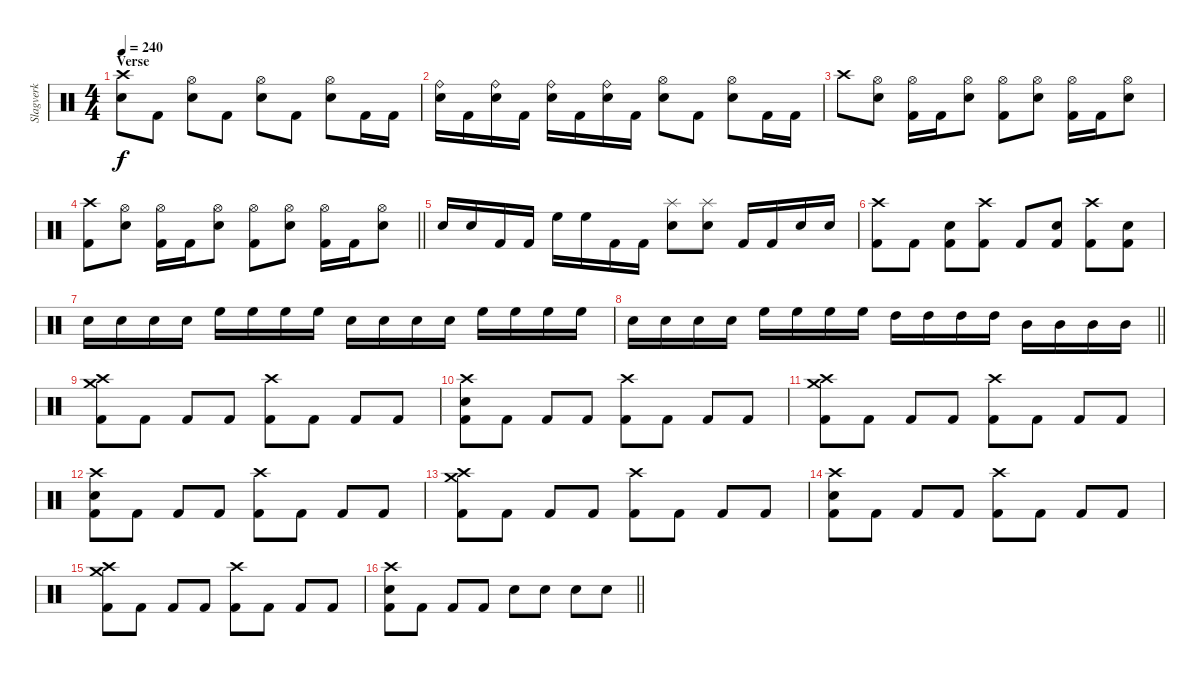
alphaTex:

\track ("Slagverk" "Slagverk") {instrument percussion}
\staff {score}
\articulation defaults
\ts (4 4)
\section ("" "Verse")
\tempo 240
\clef neutral
\ks c
("Crash high (hit)" "Electric Snare (hit)").8{dy f} "Kick (hit) 2".8 ("Hi-Hat (open)" "Electric Snare (hit)").8 "Kick (hit) 2".8 ("Hi-Hat (open)" "Electric Snare (hit)").8 "Kick (hit) 2".8 ("Hi-Hat (open)" "Electric Snare (hit)").8 "Kick (hit) 2".16 "Kick (hit) 2".16 |
("Ride (bell)" "Electric Snare (hit)").16 "Kick (hit) 2".16 ("Ride (bell)" "Electric Snare (hit)").16 "Kick (hit) 2".16 ("Ride (bell)" "Electric Snare (hit)").16 "Kick (hit) 2".16 ("Ride (bell)" "Electric Snare (hit)").16 "Kick (hit) 2".16 ("Hi-Hat (open)" "Electric Snare (hit)").8 "Kick (hit) 2".8 ("Hi-Hat (open)" "Electric Snare (hit)").8 "Kick (hit) 2".16 "Kick (hit) 2".16 |
"Crash high (hit)".8 ("Hi-Hat (open)" "Electric Snare (hit)").8 ("Hi-Hat (open)" "Kick (hit) 2").16 "Kick (hit) 2".16 ("Hi-Hat (open)" "Electric Snare (hit)").8 ("Hi-Hat (open)" "Kick (hit) 2").8 ("Hi-Hat (open)" "Electric Snare (hit)").8 ("Hi-Hat (open)" "Kick (hit) 2").16 "Kick (hit) 2".16 ("Hi-Hat (open)" "Electric Snare (hit)").8 |
\barLineRight lightlight
("Crash high (hit)" "Kick (hit) 2").8 ("Hi-Hat (open)" "Electric Snare (hit)").8 ("Hi-Hat (open)" "Kick (hit) 2").16 "Kick (hit) 2".16 ("Hi-Hat (open)" "Electric Snare (hit)").8 ("Hi-Hat (open)" "Kick (hit) 2").8 ("Hi-Hat (open)" "Electric Snare (hit)").8 ("Hi-Hat (open)" "Kick (hit) 2").16 "Kick (hit) 2".16 ("Hi-Hat (open)" "Electric Snare (hit)").8 |
"Electric Snare (hit)".16 "Electric Snare (hit)".16 "Kick (hit) 2".16 "Kick (hit) 2".16 "High Floor Tom (hit)".16 "High Floor Tom (hit)".16 "Kick (hit) 2".16 "Kick (hit) 2".16 ("Splash (hit)" "Electric Snare (hit)").8 ("Splash (hit)" "Electric Snare (hit)").8 "Kick (hit) 2".16 "Kick (hit) 2".16 "Electric Snare (hit)".16 "Electric Snare (hit)".16 |
("Crash high (hit)" "Kick (hit) 2").8 "Kick (hit) 2".8 ("Electric Snare (hit)" "Kick (hit) 2").8 ("Crash high (hit)" "Kick (hit) 2").8 "Kick (hit) 2".8 ("Electric Snare (hit)" "Kick (hit) 2").8 ("Crash high (hit)" "Kick (hit) 2").8 ("Electric Snare (hit)" "Kick (hit) 2").8 |
"Electric Snare (hit)".16 "Electric Snare (hit)".16 "Electric Snare (hit)".16 "Electric Snare (hit)".16 "High Floor Tom (hit)".16 "High Floor Tom (hit)".16 "High Floor Tom (hit)".16 "High Floor Tom (hit)".16 "Electric Snare (hit)".16 "Electric Snare (hit)".16 "Electric Snare (hit)".16 "Electric Snare (hit)".16 "High Floor Tom (hit)".16 "High Floor Tom (hit)".16 "High Floor Tom (hit)".16 "High Floor Tom (hit)".16 |
\barLineRight lightlight "Electric Snare (hit)".16 "Electric Snare (hit)".16 "Electric Snare (hit)".16 "Electric Snare (hit)".16 "High Floor Tom (hit)".16 "High Floor Tom (hit)".16 "High Floor Tom (hit)".16 "High Floor Tom (hit)".16 "High Tom (hit)".16 "High Tom (hit)".16 "High Tom (hit)".16 "High Tom (hit)".16 "Mid Tom (hit)".16 "Mid Tom (hit)".16 "Mid Tom (hit)".16 "Mid Tom (hit)".16
|
("Crash medium (hit)" "Crash high (hit)" "Kick (hit) 2").8 "Kick (hit) 2".8 "Kick (hit) 2".8 "Kick (hit) 2".8 ("Crash high (hit)" "Kick (hit) 2").8 "Kick (hit) 2".8 "Kick (hit) 2".8 "Kick (hit) 2".8 |
("Crash high (hit)" "Electric Snare (hit)" "Kick (hit) 2").8 "Kick (hit) 2".8 "Kick (hit) 2".8 "Kick (hit) 2".8 ("Crash high (hit)" "Kick (hit) 2").8 "Kick (hit) 2".8 "Kick (hit) 2".8 "Kick (hit) 2".8 |
("Crash medium (hit)" "Crash high (hit)" "Kick (hit) 2").8 "Kick (hit) 2".8 "Kick (hit) 2".8 "Kick (hit) 2".8 ("Crash high (hit)" "Kick (hit) 2").8 "Kick (hit) 2".8 "Kick (hit) 2".8 "Kick (hit) 2".8 |
("Crash high (hit)" "Electric Snare (hit)" "Kick (hit) 2").8 "Kick (hit) 2".8 "Kick (hit) 2".8 "Kick (hit) 2".8 ("Crash high (hit)" "Kick (hit) 2").8 "Kick (hit) 2".8 "Kick (hit) 2".8 "Kick (hit) 2".8 |
("Crash medium (hit)" "Crash high (hit)" "Kick (hit) 2").8 "Kick (hit) 2".8 "Kick (hit) 2".8 "Kick (hit) 2".8 ("Crash high (hit)" "Kick (hit) 2").8 "Kick (hit) 2".8 "Kick (hit) 2".8 "Kick (hit) 2".8 |
("Crash high (hit)" "Electric Snare (hit)" "Kick (hit) 2").8 "Kick (hit) 2".8 "Kick (hit) 2".8 "Kick (hit) 2".8 ("Crash high (hit)" "Kick (hit) 2").8 "Kick (hit) 2".8 "Kick (hit) 2".8 "Kick (hit) 2".8 |
("Crash medium (hit)" "Crash high (hit)" "Kick (hit) 2").8 "Kick (hit) 2".8 "Kick (hit) 2".8 "Kick (hit) 2".8 ("Crash high (hit)" "Kick (hit) 2").8 "Kick (hit) 2".8 "Kick (hit) 2".8 "Kick (hit) 2".8 |
\barLineRight lightlight
("Crash high (hit)" "Electric Snare (hit)" "Kick (hit) 2").8 "Kick (hit) 2".8 "Kick (hit) 2".8 "Kick (hit) 2".8 "Electric Snare (hit)".8 "Electric Snare (hit)".8 "Electric Snare (hit)".8 "Electric Snare (hit)".8
